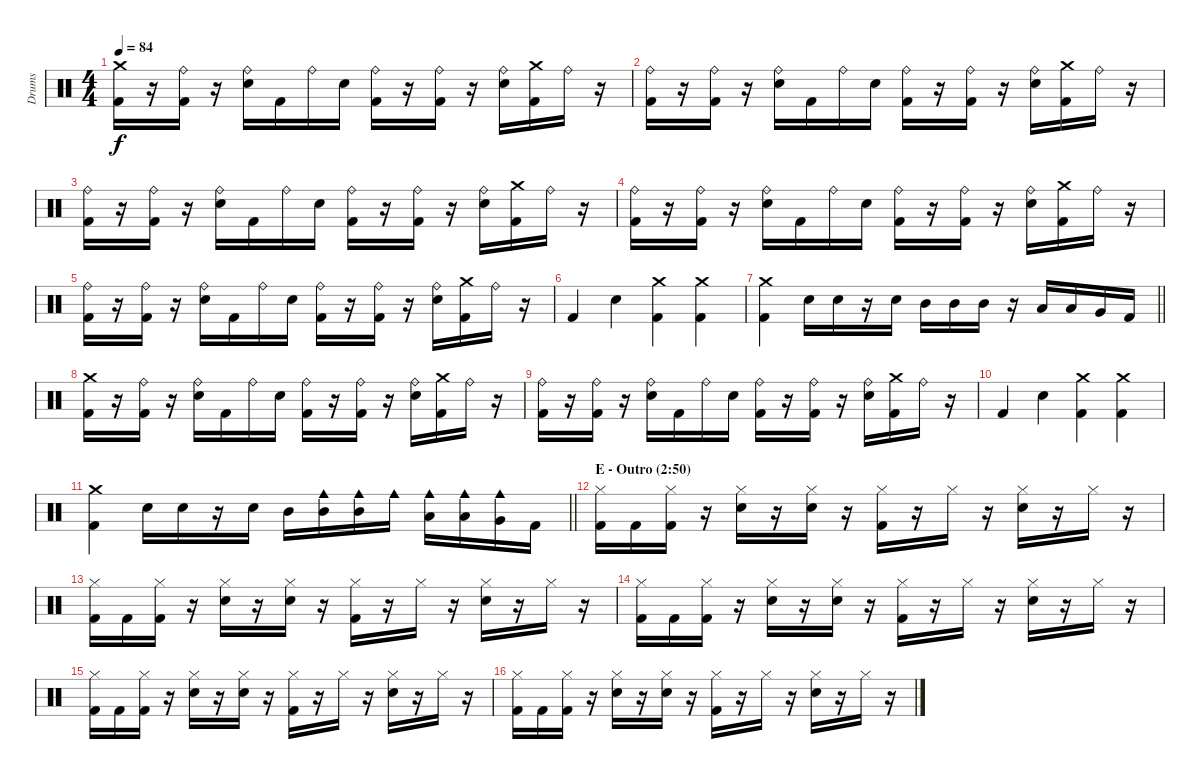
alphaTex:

\track ("Drums" "Drums") {instrument percussion}
\staff {score}
\articulation defaults
\ts (4 4)
\tempo 84
\clef neutral
\ks c
("Crash medium (hit)" "Kick (hit) 2").16{dy f} r.16 ("Ride (bell)" "Kick (hit) 2").16 r.16 ("Ride (bell)" "Snare (hit) 2").16 "Kick (hit) 2".16 "Ride (bell)".16 "Snare (hit) 2".16 ("Ride (bell)" "Kick (hit) 2").16 r.16 ("Ride (bell)" "Kick (hit) 2").16 r.16 ("Ride (bell)" "Snare (hit) 2").16 ("Crash medium (hit)" "Kick (hit) 2").16 "Ride (bell)".16 r.16 |
("Ride (bell)" "Kick (hit) 2").16 r.16 ("Ride (bell)" "Kick (hit) 2").16 r.16 ("Ride (bell)" "Snare (hit) 2").16 "Kick (hit) 2".16 "Ride (bell)".16 "Snare (hit) 2".16 ("Ride (bell)" "Kick (hit) 2").16 r.16 ("Ride (bell)" "Kick (hit) 2").16 r.16 ("Ride (bell)" "Snare (hit) 2").16 ("Crash medium (hit)" "Kick (hit) 2").16 "Ride (bell)".16 r.16 |
("Ride (bell)" "Kick (hit) 2").16 r.16 ("Ride (bell)" "Kick (hit) 2").16 r.16 ("Ride (bell)" "Snare (hit) 2").16 "Kick (hit) 2".16 "Ride (bell)".16 "Snare (hit) 2".16 ("Ride (bell)" "Kick (hit) 2").16 r.16 ("Ride (bell)" "Kick (hit) 2").16 r.16 ("Ride (bell)" "Snare (hit) 2").16 ("Crash medium (hit)" "Kick (hit) 2").16 "Ride (bell)".16 r.16 |
("Ride (bell)" "Kick (hit) 2").16 r.16 ("Ride (bell)" "Kick (hit) 2").16 r.16 ("Ride (bell)" "Snare (hit) 2").16 "Kick (hit) 2".16 "Ride (bell)".16 "Snare (hit) 2".16 ("Ride (bell)" "Kick (hit) 2").16 r.16 ("Ride (bell)" "Kick (hit) 2").16 r.16 ("Ride (bell)" "Snare (hit) 2").16 ("Crash medium (hit)" "Kick (hit) 2").16 "Ride (bell)".16 r.16 |
("Ride (bell)" "Kick (hit) 2").16 r.16 ("Ride (bell)" "Kick (hit) 2").16 r.16 ("Ride (bell)" "Snare (hit) 2").16 "Kick (hit) 2".16 "Ride (bell)".16 "Snare (hit) 2".16 ("Ride (bell)" "Kick (hit) 2").16 r.16 ("Ride (bell)" "Kick (hit) 2").16 r.16 ("Ride (bell)" "Snare (hit) 2").16 ("Crash medium (hit)" "Kick (hit) 2").16 "Ride (bell)".16 r.16 |
"Kick (hit) 2".4 "Snare (hit) 2".4 ("Crash medium (hit)" "Kick (hit) 2").4 ("Crash medium (hit)" "Kick (hit) 2").4 |
\barLineRight lightlight
("Crash medium (hit)" "Kick (hit) 2").4 "Snare (hit) 2".16 "Snare (hit) 2".16 r.16 "Snare (hit) 2".16 "Mid Tom (hit)".16 "Mid Tom (hit)".16 "Mid Tom (hit)".16 r.16 "Low Tom (hit)".16 "Low Tom (hit)".16 "Very Low Tom (hit)".16 "Kick (hit) 2".16 |
("Crash medium (hit)" "Kick (hit) 2").16 r.16 ("Ride (bell)" "Kick (hit) 2").16 r.16 ("Ride (bell)" "Snare (hit) 2").16 "Kick (hit) 2".16 "Ride (bell)".16 "Snare (hit) 2".16 ("Ride (bell)" "Kick (hit) 2").16 r.16 ("Ride (bell)" "Kick (hit) 2").16 r.16 ("Ride (bell)" "Snare (hit) 2").16 ("Crash medium (hit)" "Kick (hit) 2").16 "Ride (bell)".16 r.16 |
("Ride (bell)" "Kick (hit) 2").16 r.16 ("Ride (bell)" "Kick (hit) 2").16 r.16 ("Ride (bell)" "Snare (hit) 2").16 "Kick (hit) 2".16 "Ride (bell)".16 "Snare (hit) 2".16 ("Ride (bell)" "Kick (hit) 2").16 r.16 ("Ride (bell)" "Kick (hit) 2").16 r.16 ("Ride (bell)" "Snare (hit) 2").16 ("Crash medium (hit)" "Kick (hit) 2").16 "Ride (bell)".16 r.16 |
"Kick (hit) 2".4 "Snare (hit) 2".4 ("Crash medium (hit)" "Kick (hit) 2").4 ("Crash medium (hit)" "Kick (hit) 2").4 |
\barLineRight lightlight
("Crash medium (hit)" "Kick (hit) 2").4 "Snare (hit) 2".16 "Snare (hit) 2".16 r.16 "Snare (hit) 2".16 "Mid Tom (hit)".16 ("Cowbell medium (hit)" "Mid Tom (hit)").16 ("Cowbell medium (hit)" "Mid Tom (hit)").16 "Cowbell medium (hit)".16 ("Cowbell medium (hit)" "Low Tom (hit)").16 ("Cowbell medium (hit)" "Low Tom (hit)").16 ("Cowbell medium (hit)" "Very Low Tom (hit)").16 "Kick (hit) 2".16 |
\section ("" "E - Outro (2:50)")
("Hi-Hat (closed)" "Kick (hit) 2").16 "Kick (hit) 2".16 ("Hi-Hat (closed)" "Kick (hit) 2").16 r.16 ("Hi-Hat (closed)" "Snare (hit) 2").16 r.16 ("Hi-Hat (closed)" "Snare (hit) 2").16 r.16 ("Hi-Hat (closed)" "Kick (hit) 2").16 r.16 "Hi-Hat (closed)".16 r.16 ("Hi-Hat (closed)" "Snare (hit) 2").16 r.16 "Hi-Hat (closed)".16 r.16 |
("Hi-Hat (closed)" "Kick (hit) 2").16 "Kick (hit) 2".16 ("Hi-Hat (closed)" "Kick (hit) 2").16 r.16 ("Hi-Hat (closed)" "Snare (hit) 2").16 r.16 ("Hi-Hat (closed)" "Snare (hit) 2").16 r.16 ("Hi-Hat (closed)" "Kick (hit) 2").16 r.16 "Hi-Hat (closed)".16 r.16 ("Hi-Hat (closed)" "Snare (hit) 2").16 r.16 "Hi-Hat (closed)".16 r.16 |
("Hi-Hat (closed)" "Kick (hit) 2").16 "Kick (hit) 2".16 ("Hi-Hat (closed)" "Kick (hit) 2").16 r.16 ("Hi-Hat (closed)" "Snare (hit) 2").16 r.16 ("Hi-Hat (closed)" "Snare (hit) 2").16 r.16 ("Hi-Hat (closed)" "Kick (hit) 2").16 r.16 "Hi-Hat (closed)".16 r.16 ("Hi-Hat (closed)" "Snare (hit) 2").16 r.16 "Hi-Hat (closed)".16 r.16 |
("Hi-Hat (closed)" "Kick (hit) 2").16 "Kick (hit) 2".16 ("Hi-Hat (closed)" "Kick (hit) 2").16 r.16 ("Hi-Hat (closed)" "Snare (hit) 2").16 r.16 ("Hi-Hat (closed)" "Snare (hit) 2").16 r.16 ("Hi-Hat (closed)" "Kick (hit) 2").16 r.16 "Hi-Hat (closed)".16 r.16 ("Hi-Hat (closed)" "Snare (hit) 2").16 r.16 "Hi-Hat (closed)".16 r.16 |
("Hi-Hat (closed)" "Kick (hit) 2").16 "Kick (hit) 2".16 ("Hi-Hat (closed)" "Kick (hit) 2").16 r.16 ("Hi-Hat (closed)" "Snare (hit) 2").16 r.16 ("Hi-Hat (closed)" "Snare (hit) 2").16 r.16 ("Hi-Hat (closed)" "Kick (hit) 2").16 r.16 "Hi-Hat (closed)".16 r.16 ("Hi-Hat (closed)" "Snare (hit) 2").16 r.16 "Hi-Hat (closed)".16 r.16
